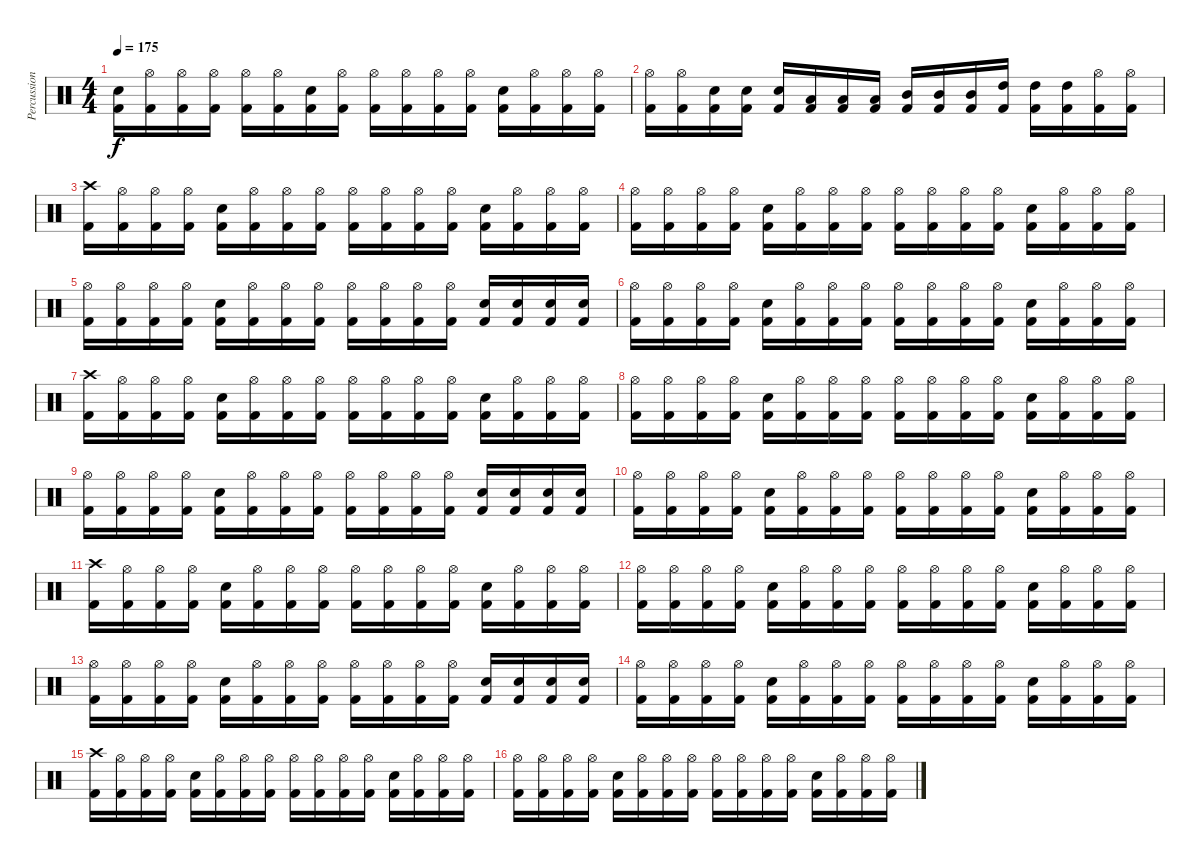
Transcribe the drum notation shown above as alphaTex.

\track ("Percussion" "Percussion") {instrument percussion}
\staff {score}
\articulation defaults
\ts (4 4)
\tempo 175
\clef neutral
\ks c
("Kick (hit) 2" "Snare (hit) 2").16{dy f} ("Kick (hit) 2" "Hi-Hat (open)").16 ("Kick (hit) 2" "Hi-Hat (open)").16 ("Kick (hit) 2" "Hi-Hat (open)").16 ("Kick (hit) 2" "Hi-Hat (open)").16 ("Kick (hit) 2" "Hi-Hat (open)").16 ("Kick (hit) 2" "Snare (hit) 2").16 ("Kick (hit) 2" "Hi-Hat (open)").16 ("Kick (hit) 2" "Hi-Hat (open)").16 ("Kick (hit) 2" "Hi-Hat (open)").16 ("Kick (hit) 2" "Hi-Hat (open)").16 ("Kick (hit) 2" "Hi-Hat (open)").16 ("Kick (hit) 2" "Snare (hit) 2").16 ("Kick (hit) 2" "Hi-Hat (open)").16 ("Kick (hit) 2" "Hi-Hat (open)").16 ("Kick (hit) 2" "Hi-Hat (open)").16 |
("Kick (hit) 2" "Hi-Hat (open)").16 ("Kick (hit) 2" "Hi-Hat (open)").16 ("Kick (hit) 2" "Snare (hit) 2").16 ("Kick (hit) 2" "Snare (hit) 2").16 ("Kick (hit) 2" "Snare (hit) 2").16 ("Kick (hit) 2" "Low Tom (hit)").16 ("Kick (hit) 2" "Low Tom (hit)").16 ("Kick (hit) 2" "Low Tom (hit)").16 ("Kick (hit) 2" "Mid Tom (hit)").16 ("Kick (hit) 2" "Mid Tom (hit)").16 ("Kick (hit) 2" "Mid Tom (hit)").16 ("Kick (hit) 2" "High Tom (hit)").16 ("Kick (hit) 2" "High Tom (hit)").16 ("Kick (hit) 2" "High Tom (hit)").16 ("Kick (hit) 2" "Hi-Hat (open)").16 ("Kick (hit) 2" "Hi-Hat (open)").16 |
("Kick (hit) 2" "Crash high (hit)").16 ("Kick (hit) 2" "Hi-Hat (open)").16 ("Kick (hit) 2" "Hi-Hat (open)").16 ("Kick (hit) 2" "Hi-Hat (open)").16 ("Kick (hit) 2" "Snare (hit) 2").16 ("Kick (hit) 2" "Hi-Hat (open)").16 ("Kick (hit) 2" "Hi-Hat (open)").16 ("Kick (hit) 2" "Hi-Hat (open)").16 ("Kick (hit) 2" "Hi-Hat (open)").16 ("Kick (hit) 2" "Hi-Hat (open)").16 ("Kick (hit) 2" "Hi-Hat (open)").16 ("Kick (hit) 2" "Hi-Hat (open)").16 ("Kick (hit) 2" "Snare (hit) 2").16 ("Kick (hit) 2" "Hi-Hat (open)").16 ("Kick (hit) 2" "Hi-Hat (open)").16 ("Kick (hit) 2" "Hi-Hat (open)").16 |
("Kick (hit) 2" "Hi-Hat (open)").16 ("Kick (hit) 2" "Hi-Hat (open)").16 ("Kick (hit) 2" "Hi-Hat (open)").16 ("Kick (hit) 2" "Hi-Hat (open)").16 ("Kick (hit) 2" "Snare (hit) 2").16 ("Kick (hit) 2" "Hi-Hat (open)").16 ("Kick (hit) 2" "Hi-Hat (open)").16 ("Kick (hit) 2" "Hi-Hat (open)").16 ("Kick (hit) 2" "Hi-Hat (open)").16 ("Kick (hit) 2" "Hi-Hat (open)").16 ("Kick (hit) 2" "Hi-Hat (open)").16 ("Kick (hit) 2" "Hi-Hat (open)").16 ("Kick (hit) 2" "Snare (hit) 2").16 ("Kick (hit) 2" "Hi-Hat (open)").16 ("Kick (hit) 2" "Hi-Hat (open)").16 ("Kick (hit) 2" "Hi-Hat (open)").16 |
("Kick (hit) 2" "Hi-Hat (open)").16 ("Kick (hit) 2" "Hi-Hat (open)").16 ("Kick (hit) 2" "Hi-Hat (open)").16 ("Kick (hit) 2" "Hi-Hat (open)").16 ("Kick (hit) 2" "Snare (hit) 2").16 ("Kick (hit) 2" "Hi-Hat (open)").16 ("Kick (hit) 2" "Hi-Hat (open)").16 ("Kick (hit) 2" "Hi-Hat (open)").16 ("Kick (hit) 2" "Hi-Hat (open)").16 ("Kick (hit) 2" "Hi-Hat (open)").16 ("Kick (hit) 2" "Hi-Hat (open)").16 ("Kick (hit) 2" "Hi-Hat (open)").16 ("Kick (hit) 2" "Snare (hit) 2").16 ("Kick (hit) 2" "Snare (hit) 2").16 ("Kick (hit) 2" "Snare (hit) 2").16 ("Kick (hit) 2" "Snare (hit) 2").16 |
("Kick (hit) 2" "Hi-Hat (open)").16 ("Kick (hit) 2" "Hi-Hat (open)").16 ("Kick (hit) 2" "Hi-Hat (open)").16 ("Kick (hit) 2" "Hi-Hat (open)").16 ("Kick (hit) 2" "Snare (hit) 2").16 ("Kick (hit) 2" "Hi-Hat (open)").16 ("Kick (hit) 2" "Hi-Hat (open)").16 ("Kick (hit) 2" "Hi-Hat (open)").16 ("Kick (hit) 2" "Hi-Hat (open)").16 ("Kick (hit) 2" "Hi-Hat (open)").16 ("Kick (hit) 2" "Hi-Hat (open)").16 ("Kick (hit) 2" "Hi-Hat (open)").16 ("Kick (hit) 2" "Snare (hit) 2").16 ("Kick (hit) 2" "Hi-Hat (open)").16 ("Kick (hit) 2" "Hi-Hat (open)").16 ("Kick (hit) 2" "Hi-Hat (open)").16 |
("Kick (hit) 2" "Crash high (hit)").16 ("Kick (hit) 2" "Hi-Hat (open)").16 ("Kick (hit) 2" "Hi-Hat (open)").16 ("Kick (hit) 2" "Hi-Hat (open)").16 ("Kick (hit) 2" "Snare (hit) 2").16 ("Kick (hit) 2" "Hi-Hat (open)").16 ("Kick (hit) 2" "Hi-Hat (open)").16 ("Kick (hit) 2" "Hi-Hat (open)").16 ("Kick (hit) 2" "Hi-Hat (open)").16 ("Kick (hit) 2" "Hi-Hat (open)").16 ("Kick (hit) 2" "Hi-Hat (open)").16 ("Kick (hit) 2" "Hi-Hat (open)").16 ("Kick (hit) 2" "Snare (hit) 2").16 ("Kick (hit) 2" "Hi-Hat (open)").16 ("Kick (hit) 2" "Hi-Hat (open)").16 ("Kick (hit) 2" "Hi-Hat (open)").16 |
("Kick (hit) 2" "Hi-Hat (open)").16 ("Kick (hit) 2" "Hi-Hat (open)").16 ("Kick (hit) 2" "Hi-Hat (open)").16 ("Kick (hit) 2" "Hi-Hat (open)").16 ("Kick (hit) 2" "Snare (hit) 2").16 ("Kick (hit) 2" "Hi-Hat (open)").16 ("Kick (hit) 2" "Hi-Hat (open)").16 ("Kick (hit) 2" "Hi-Hat (open)").16 ("Kick (hit) 2" "Hi-Hat (open)").16 ("Kick (hit) 2" "Hi-Hat (open)").16 ("Kick (hit) 2" "Hi-Hat (open)").16 ("Kick (hit) 2" "Hi-Hat (open)").16 ("Kick (hit) 2" "Snare (hit) 2").16 ("Kick (hit) 2" "Hi-Hat (open)").16 ("Kick (hit) 2" "Hi-Hat (open)").16 ("Kick (hit) 2" "Hi-Hat (open)").16 |
("Kick (hit) 2" "Hi-Hat (open)").16 ("Kick (hit) 2" "Hi-Hat (open)").16 ("Kick (hit) 2" "Hi-Hat (open)").16 ("Kick (hit) 2" "Hi-Hat (open)").16 ("Kick (hit) 2" "Snare (hit) 2").16 ("Kick (hit) 2" "Hi-Hat (open)").16 ("Kick (hit) 2" "Hi-Hat (open)").16 ("Kick (hit) 2" "Hi-Hat (open)").16 ("Kick (hit) 2" "Hi-Hat (open)").16 ("Kick (hit) 2" "Hi-Hat (open)").16 ("Kick (hit) 2" "Hi-Hat (open)").16 ("Kick (hit) 2" "Hi-Hat (open)").16 ("Kick (hit) 2" "Snare (hit) 2").16 ("Kick (hit) 2" "Snare (hit) 2").16 ("Kick (hit) 2" "Snare (hit) 2").16 ("Kick (hit) 2" "Snare (hit) 2").16 |
("Kick (hit) 2" "Hi-Hat (open)").16 ("Kick (hit) 2" "Hi-Hat (open)").16 ("Kick (hit) 2" "Hi-Hat (open)").16 ("Kick (hit) 2" "Hi-Hat (open)").16 ("Kick (hit) 2" "Snare (hit) 2").16 ("Kick (hit) 2" "Hi-Hat (open)").16 ("Kick (hit) 2" "Hi-Hat (open)").16 ("Kick (hit) 2" "Hi-Hat (open)").16 ("Kick (hit) 2" "Hi-Hat (open)").16 ("Kick (hit) 2" "Hi-Hat (open)").16 ("Kick (hit) 2" "Hi-Hat (open)").16 ("Kick (hit) 2" "Hi-Hat (open)").16 ("Kick (hit) 2" "Snare (hit) 2").16 ("Kick (hit) 2" "Hi-Hat (open)").16 ("Kick (hit) 2" "Hi-Hat (open)").16 ("Kick (hit) 2" "Hi-Hat (open)").16 |
("Kick (hit) 2" "Crash high (hit)").16 ("Kick (hit) 2" "Hi-Hat (open)").16 ("Kick (hit) 2" "Hi-Hat (open)").16 ("Kick (hit) 2" "Hi-Hat (open)").16 ("Kick (hit) 2" "Snare (hit) 2").16 ("Kick (hit) 2" "Hi-Hat (open)").16 ("Kick (hit) 2" "Hi-Hat (open)").16 ("Kick (hit) 2" "Hi-Hat (open)").16 ("Kick (hit) 2" "Hi-Hat (open)").16 ("Kick (hit) 2" "Hi-Hat (open)").16 ("Kick (hit) 2" "Hi-Hat (open)").16 ("Kick (hit) 2" "Hi-Hat (open)").16 ("Kick (hit) 2" "Snare (hit) 2").16 ("Kick (hit) 2" "Hi-Hat (open)").16 ("Kick (hit) 2" "Hi-Hat (open)").16 ("Kick (hit) 2" "Hi-Hat (open)").16 |
("Kick (hit) 2" "Hi-Hat (open)").16 ("Kick (hit) 2" "Hi-Hat (open)").16 ("Kick (hit) 2" "Hi-Hat (open)").16 ("Kick (hit) 2" "Hi-Hat (open)").16 ("Kick (hit) 2" "Snare (hit) 2").16 ("Kick (hit) 2" "Hi-Hat (open)").16 ("Kick (hit) 2" "Hi-Hat (open)").16 ("Kick (hit) 2" "Hi-Hat (open)").16 ("Kick (hit) 2" "Hi-Hat (open)").16 ("Kick (hit) 2" "Hi-Hat (open)").16 ("Kick (hit) 2" "Hi-Hat (open)").16 ("Kick (hit) 2" "Hi-Hat (open)").16 ("Kick (hit) 2" "Snare (hit) 2").16 ("Kick (hit) 2" "Hi-Hat (open)").16 ("Kick (hit) 2" "Hi-Hat (open)").16 ("Kick (hit) 2" "Hi-Hat (open)").16 |
("Kick (hit) 2" "Hi-Hat (open)").16 ("Kick (hit) 2" "Hi-Hat (open)").16 ("Kick (hit) 2" "Hi-Hat (open)").16 ("Kick (hit) 2" "Hi-Hat (open)").16 ("Kick (hit) 2" "Snare (hit) 2").16 ("Kick (hit) 2" "Hi-Hat (open)").16 ("Kick (hit) 2" "Hi-Hat (open)").16 ("Kick (hit) 2" "Hi-Hat (open)").16 ("Kick (hit) 2" "Hi-Hat (open)").16 ("Kick (hit) 2" "Hi-Hat (open)").16 ("Kick (hit) 2" "Hi-Hat (open)").16 ("Kick (hit) 2" "Hi-Hat (open)").16 ("Kick (hit) 2" "Snare (hit) 2").16 ("Kick (hit) 2" "Snare (hit) 2").16 ("Kick (hit) 2" "Snare (hit) 2").16 ("Kick (hit) 2" "Snare (hit) 2").16 |
("Kick (hit) 2" "Hi-Hat (open)").16 ("Kick (hit) 2" "Hi-Hat (open)").16 ("Kick (hit) 2" "Hi-Hat (open)").16 ("Kick (hit) 2" "Hi-Hat (open)").16 ("Kick (hit) 2" "Snare (hit) 2").16 ("Kick (hit) 2" "Hi-Hat (open)").16 ("Kick (hit) 2" "Hi-Hat (open)").16 ("Kick (hit) 2" "Hi-Hat (open)").16 ("Kick (hit) 2" "Hi-Hat (open)").16 ("Kick (hit) 2" "Hi-Hat (open)").16 ("Kick (hit) 2" "Hi-Hat (open)").16 ("Kick (hit) 2" "Hi-Hat (open)").16 ("Kick (hit) 2" "Snare (hit) 2").16 ("Kick (hit) 2" "Hi-Hat (open)").16 ("Kick (hit) 2" "Hi-Hat (open)").16 ("Kick (hit) 2" "Hi-Hat (open)").16 |
("Kick (hit) 2" "Crash high (hit)").16 ("Kick (hit) 2" "Hi-Hat (open)").16 ("Kick (hit) 2" "Hi-Hat (open)").16 ("Kick (hit) 2" "Hi-Hat (open)").16 ("Kick (hit) 2" "Snare (hit) 2").16 ("Kick (hit) 2" "Hi-Hat (open)").16 ("Kick (hit) 2" "Hi-Hat (open)").16 ("Kick (hit) 2" "Hi-Hat (open)").16 ("Kick (hit) 2" "Hi-Hat (open)").16 ("Kick (hit) 2" "Hi-Hat (open)").16 ("Kick (hit) 2" "Hi-Hat (open)").16 ("Kick (hit) 2" "Hi-Hat (open)").16 ("Kick (hit) 2" "Snare (hit) 2").16 ("Kick (hit) 2" "Hi-Hat (open)").16 ("Kick (hit) 2" "Hi-Hat (open)").16 ("Kick (hit) 2" "Hi-Hat (open)").16 |
("Kick (hit) 2" "Hi-Hat (open)").16 ("Kick (hit) 2" "Hi-Hat (open)").16 ("Kick (hit) 2" "Hi-Hat (open)").16 ("Kick (hit) 2" "Hi-Hat (open)").16 ("Kick (hit) 2" "Snare (hit) 2").16 ("Kick (hit) 2" "Hi-Hat (open)").16 ("Kick (hit) 2" "Hi-Hat (open)").16 ("Kick (hit) 2" "Hi-Hat (open)").16 ("Kick (hit) 2" "Hi-Hat (open)").16 ("Kick (hit) 2" "Hi-Hat (open)").16 ("Kick (hit) 2" "Hi-Hat (open)").16 ("Kick (hit) 2" "Hi-Hat (open)").16 ("Kick (hit) 2" "Snare (hit) 2").16 ("Kick (hit) 2" "Hi-Hat (open)").16 ("Kick (hit) 2" "Hi-Hat (open)").16 ("Kick (hit) 2" "Hi-Hat (open)").16
